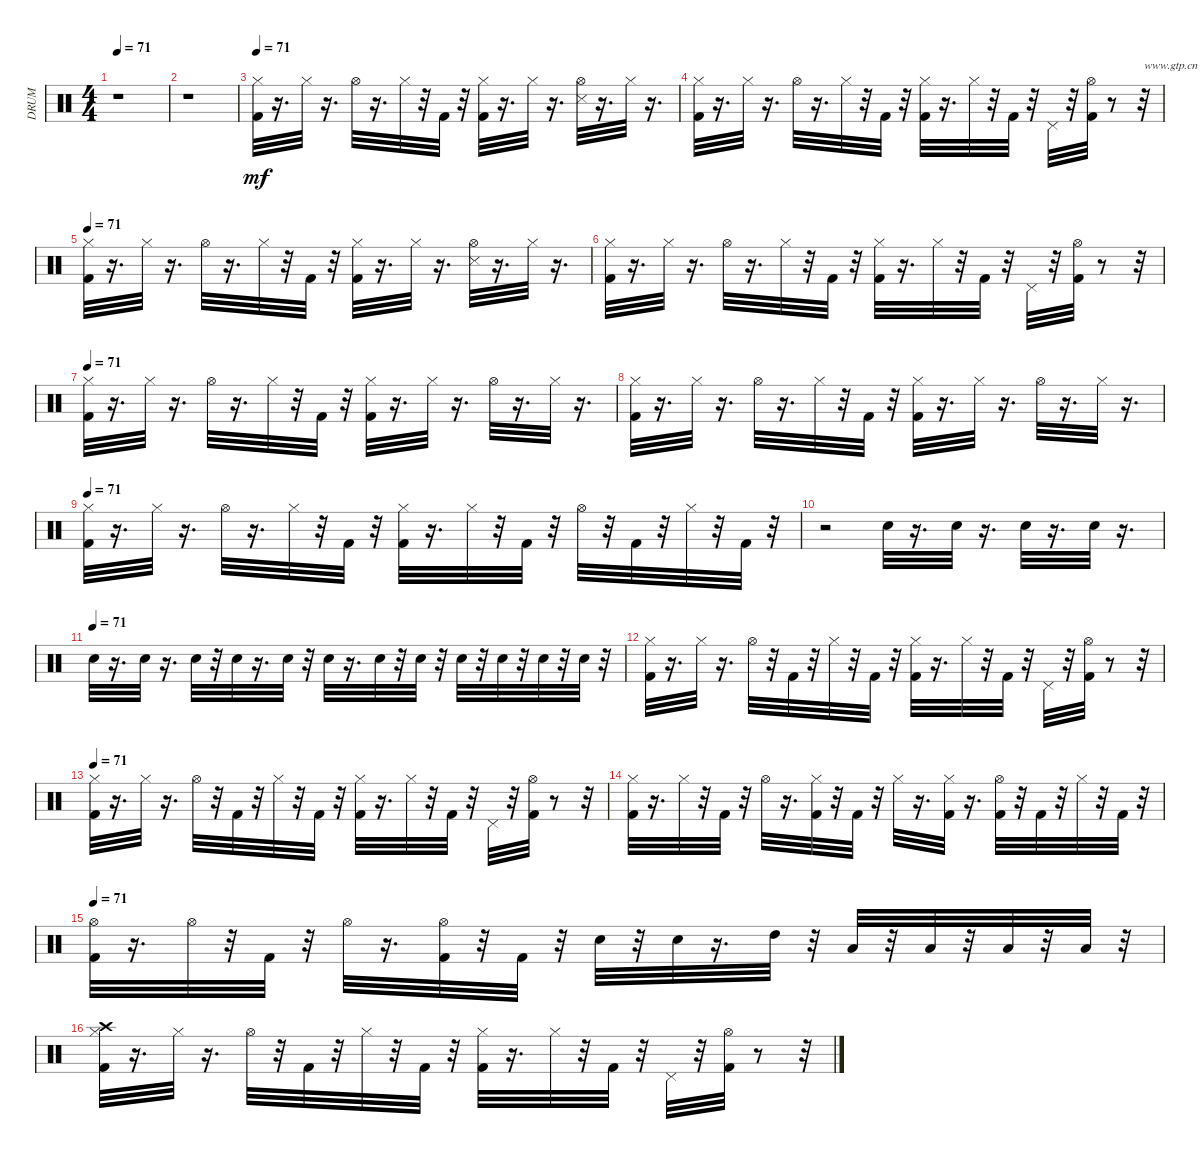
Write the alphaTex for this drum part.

\track ("DRUM" "DRUM") {instrument percussion}
\staff {score}
\articulation defaults
\ts (4 4)
\tempo 71
\clef neutral
\ks c
r.1{dy mf} |
r.1 |
\tempo 71
("Kick (hit) 2" "Hi-Hat (closed)").32{volume 14} r.16{d} "Hi-Hat (closed)".32 r.16{d} "Hi-Hat (open)".32 r.16{d} "Hi-Hat (closed)".32 r.32 "Kick (hit) 2".32 r.32 ("Kick (hit) 2" "Hi-Hat (closed)").32 r.16{d} "Hi-Hat (closed)".32 r.16{d} ("Snare (side stick) 3" "Hi-Hat (open)").32 r.16{d} "Hi-Hat (closed)".32 r.16{d} |
("Kick (hit) 2" "Hi-Hat (closed)").32 r.16{d} "Hi-Hat (closed)".32 r.16{d} "Hi-Hat (open)".32 r.16{d} "Hi-Hat (closed)".32 r.32 "Kick (hit) 2".32 r.32 ("Kick (hit) 2" "Hi-Hat (closed)").32 r.16{d} "Hi-Hat (closed)".32 r.32 "Kick (hit) 2".32 r.32 "Pedal Hi-Hat (hit)".32 r.32 ("Kick (hit) 2" "Hi-Hat (open)").32 r.8 r.32{txt "www.gtp.cn www.51gtp.com联合为您提供优秀的GTP!"} |
\tempo 71
("Kick (hit) 2" "Hi-Hat (closed)").32 r.16{d} "Hi-Hat (closed)".32 r.16{d} "Hi-Hat (open)".32 r.16{d} "Hi-Hat (closed)".32 r.32 "Kick (hit) 2".32 r.32 ("Kick (hit) 2" "Hi-Hat (closed)").32 r.16{d} "Hi-Hat (closed)".32 r.16{d} ("Snare (side stick) 3" "Hi-Hat (open)").32 r.16{d} "Hi-Hat (closed)".32 r.16{d} |
("Kick (hit) 2" "Hi-Hat (closed)").32 r.16{d} "Hi-Hat (closed)".32 r.16{d} "Hi-Hat (open)".32 r.16{d} "Hi-Hat (closed)".32 r.32 "Kick (hit) 2".32 r.32 ("Kick (hit) 2" "Hi-Hat (closed)").32 r.16{d} "Hi-Hat (closed)".32 r.32 "Kick (hit) 2".32 r.32 "Pedal Hi-Hat (hit)".32 r.32 ("Kick (hit) 2" "Hi-Hat (open)").32 r.8 r.32 |
\tempo 71
("Kick (hit) 2" "Hi-Hat (closed)").32 r.16{d} "Hi-Hat (closed)".32 r.16{d} "Hi-Hat (open)".32 r.16{d} "Hi-Hat (closed)".32 r.32 "Kick (hit) 2".32 r.32 ("Kick (hit) 2" "Hi-Hat (closed)").32 r.16{d} "Hi-Hat (closed)".32 r.16{d} "Hi-Hat (open)".32 r.16{d} "Hi-Hat (closed)".32 r.16{d} |
("Kick (hit) 2" "Hi-Hat (closed)").32 r.16{d} "Hi-Hat (closed)".32 r.16{d} "Hi-Hat (open)".32 r.16{d} "Hi-Hat (closed)".32 r.32 "Kick (hit) 2".32 r.32 ("Kick (hit) 2" "Hi-Hat (closed)").32 r.16{d} "Hi-Hat (closed)".32 r.16{d} "Hi-Hat (open)".32 r.16{d} "Hi-Hat (closed)".32 r.16{d} |
\tempo 71
("Kick (hit) 2" "Hi-Hat (closed)").32 r.16{d} "Hi-Hat (closed)".32 r.16{d} "Hi-Hat (open)".32 r.16{d} "Hi-Hat (closed)".32 r.32 "Kick (hit) 2".32 r.32 ("Kick (hit) 2" "Hi-Hat (closed)").32 r.16{d} "Hi-Hat (closed)".32 r.32 "Kick (hit) 2".32 r.32 "Hi-Hat (open)".32 r.32 "Kick (hit) 2".32 r.32 "Hi-Hat (closed)".32 r.32 "Kick (hit) 2".32 r.32 |
r.2 "Snare (hit) 2".32 r.16{d} "Snare (hit) 2".32 r.16{d} "Snare (hit) 2".32 r.16{d} "Snare (hit) 2".32 r.16{d} |
\tempo (71)
"Snare (hit) 2".32 r.16{d} "Snare (hit) 2".32 r.16{d} "Snare (hit) 2".32 r.32 "Snare (hit) 2".32 r.16{d} "Snare (hit) 2".32 r.32 "Snare (hit) 2".32 r.16{d} "Snare (hit) 2".32 r.32 "Snare (hit) 2".32 r.32 "Snare (hit) 2".32 r.32 "Snare (hit) 2".32 r.32 "Snare (hit) 2".32 r.32 "Snare (hit) 2".32 r.32 |
("Kick (hit) 2" "Hi-Hat (closed)").32 r.16{d} "Hi-Hat (closed)".32 r.16{d} "Hi-Hat (open)".32 r.32 "Kick (hit) 2".32 r.32 "Hi-Hat (closed)".32 r.32 "Kick (hit) 2".32 r.32 ("Kick (hit) 2" "Hi-Hat (closed)").32 r.16{d} "Hi-Hat (closed)".32 r.32 "Kick (hit) 2".32 r.32 "Pedal Hi-Hat (hit)".32 r.32 ("Kick (hit) 2" "Hi-Hat (open)").32 r.8 r.32 |
\tempo 71
("Kick (hit) 2" "Hi-Hat (closed)").32 r.16{d} "Hi-Hat (closed)".32 r.16{d} "Hi-Hat (open)".32 r.32 "Kick (hit) 2".32 r.32 "Hi-Hat (closed)".32 r.32 "Kick (hit) 2".32 r.32 ("Kick (hit) 2" "Hi-Hat (closed)").32 r.16{d} "Hi-Hat (closed)".32 r.32 "Kick (hit) 2".32 r.32 "Pedal Hi-Hat (hit)".32 r.32 ("Kick (hit) 2" "Hi-Hat (open)").32 r.8 r.32 |
("Kick (hit) 2" "Hi-Hat (closed)").32 r.16{d} "Hi-Hat (closed)".32 r.32 "Kick (hit) 2".32 r.32 "Hi-Hat (open)".32 r.16{d} ("Kick (hit) 2" "Hi-Hat (closed)").32 r.32 "Kick (hit) 2".32 r.32 "Hi-Hat (closed)".32 r.16{d} ("Kick (hit) 2" "Hi-Hat (closed)").32 r.16{d} ("Kick (hit) 2" "Hi-Hat (open)").32 r.32 "Kick (hit) 2".32 r.32 "Hi-Hat (closed)".32 r.32 "Kick (hit) 2".32 r.32 |
\tempo 71
("Kick (hit) 2" "Hi-Hat (open)").32 r.16{d} "Hi-Hat (open)".32 r.32 "Kick (hit) 2".32 r.32 "Hi-Hat (open)".32 r.16{d} ("Kick (hit) 2" "Hi-Hat (open)").32 r.32 "Kick (hit) 2".32 r.32 "Snare (hit) 2".32 r.32 "Snare (hit) 2".32 r.16{d} "High Tom (hit)".32 r.32 "Low Tom (hit)".32 r.32 "Low Tom (hit)".32 r.32 "Low Floor Tom (hit)".32 r.32 "Low Floor Tom (hit)".32 r.32 |
("Kick (hit) 2" "Hi-Hat (closed)" "Crash high (hit)").32 r.16{d} "Hi-Hat (closed)".32 r.16{d} "Hi-Hat (open)".32 r.32 "Kick (hit) 2".32 r.32 "Hi-Hat (closed)".32 r.32 "Kick (hit) 2".32 r.32 ("Kick (hit) 2" "Hi-Hat (closed)").32 r.16{d} "Hi-Hat (closed)".32 r.32 "Kick (hit) 2".32 r.32 "Pedal Hi-Hat (hit)".32 r.32 ("Kick (hit) 2" "Hi-Hat (open)").32 r.8 r.32
